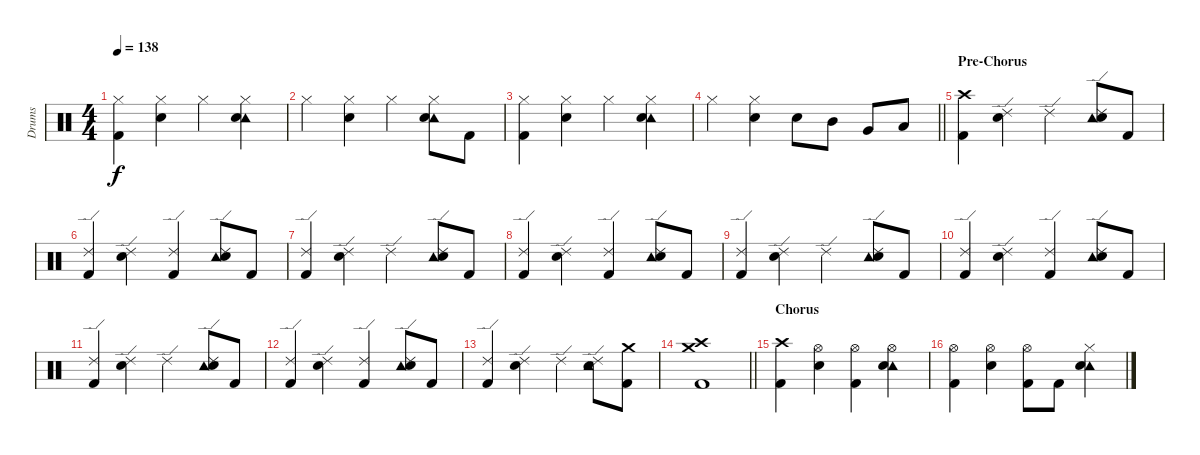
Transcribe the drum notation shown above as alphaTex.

\track ("Drums" "Drums") {instrument percussion}
\staff {score}
\articulation defaults
\ts (4 4)
\tempo 138
\clef neutral
\ks c
("Hi-Hat (closed)" "Kick (hit) 2").4{dy f} ("Hi-Hat (closed)" "Snare (hit) 2").4 "Hi-Hat (closed)".4 ("Tambourine (hit)" "Hi-Hat (closed)" "Snare (hit) 2").4 |
"Hi-Hat (closed)".4 ("Hi-Hat (closed)" "Snare (hit) 2").4 "Hi-Hat (closed)".4 ("Tambourine (hit)" "Hi-Hat (closed)" "Snare (hit) 2").8 "Kick (hit) 2".8 |
("Hi-Hat (closed)" "Kick (hit) 2").4 ("Hi-Hat (closed)" "Snare (hit) 2").4 "Hi-Hat (closed)".4 ("Tambourine (hit)" "Hi-Hat (closed)" "Snare (hit) 2").4 |
\barLineRight lightlight "Hi-Hat (closed)".4
("Hi-Hat (closed)" "Snare (hit) 2").4 "Snare (hit) 2".8 "Mid Tom (hit)".8 "Very Low Tom (hit)".8 "Low Tom (hit)".8 |
\section ("" "Pre-Chorus")
("Crash high (hit)" "Kick (hit) 2").4 ("Ride (edge) 2" "Snare (hit) 2").4 "Ride (edge) 2".4 ("Tambourine (hit)" "Ride (edge) 2" "Snare (hit) 2").8 "Kick (hit) 2".8 |
("Ride (edge) 2" "Kick (hit) 2").4 ("Ride (edge) 2" "Snare (hit) 2").4 ("Ride (edge) 2" "Kick (hit) 2").4 ("Tambourine (hit)" "Ride (edge) 2" "Snare (hit) 2").8 "Kick (hit) 2".8 |
("Ride (edge) 2" "Kick (hit) 2").4 ("Ride (edge) 2" "Snare (hit) 2").4 "Ride (edge) 2".4 ("Tambourine (hit)" "Ride (edge) 2" "Snare (hit) 2").8 "Kick (hit) 2".8 |
("Ride (edge) 2" "Kick (hit) 2").4 ("Ride (edge) 2" "Snare (hit) 2").4 ("Ride (edge) 2" "Kick (hit) 2").4 ("Tambourine (hit)" "Ride (edge) 2" "Snare (hit) 2").8 "Kick (hit) 2".8 |
("Ride (edge) 2" "Kick (hit) 2").4 ("Ride (edge) 2" "Snare (hit) 2").4 "Ride (edge) 2".4 ("Tambourine (hit)" "Ride (edge) 2" "Snare (hit) 2").8 "Kick (hit) 2".8 |
("Ride (edge) 2" "Kick (hit) 2").4 ("Ride (edge) 2" "Snare (hit) 2").4 ("Ride (edge) 2" "Kick (hit) 2").4 ("Tambourine (hit)" "Ride (edge) 2" "Snare (hit) 2").8 "Kick (hit) 2".8 |
("Ride (edge) 2" "Kick (hit) 2").4 ("Ride (edge) 2" "Snare (hit) 2").4 "Ride (edge) 2".4 ("Tambourine (hit)" "Ride (edge) 2" "Snare (hit) 2").8 "Kick (hit) 2".8 |
("Ride (edge) 2" "Kick (hit) 2").4 ("Ride (edge) 2" "Snare (hit) 2").4 ("Ride (edge) 2" "Kick (hit) 2").4 ("Tambourine (hit)" "Ride (edge) 2" "Snare (hit) 2").8 "Kick (hit) 2".8 |
("Ride (edge) 2" "Kick (hit) 2").4 ("Ride (edge) 2" "Snare (hit) 2").4 "Ride (edge) 2".4 ("Tambourine (hit)" "Ride (edge) 2" "Snare (hit) 2").8 ("Crash medium (hit)" "Kick (hit) 2").8 |
\barLineRight lightlight
("Crash high (hit)" "Crash medium (hit)" "Kick (hit) 2").1 |
\section ("" "Chorus")
("Crash high (hit)" "Kick (hit) 2").4 ("Hi-Hat (open)" "Snare (hit) 2").4 ("Hi-Hat (open)" "Kick (hit) 2").4 ("Tambourine (hit)" "Hi-Hat (open)" "Snare (hit) 2").4 |
("Hi-Hat (open)" "Kick (hit) 2").4 ("Hi-Hat (open)" "Snare (hit) 2").4 ("Hi-Hat (open)" "Kick (hit) 2").8 "Kick (hit) 2".8 ("Tambourine (hit)" "Hi-Hat (closed)" "Snare (hit) 2").4
